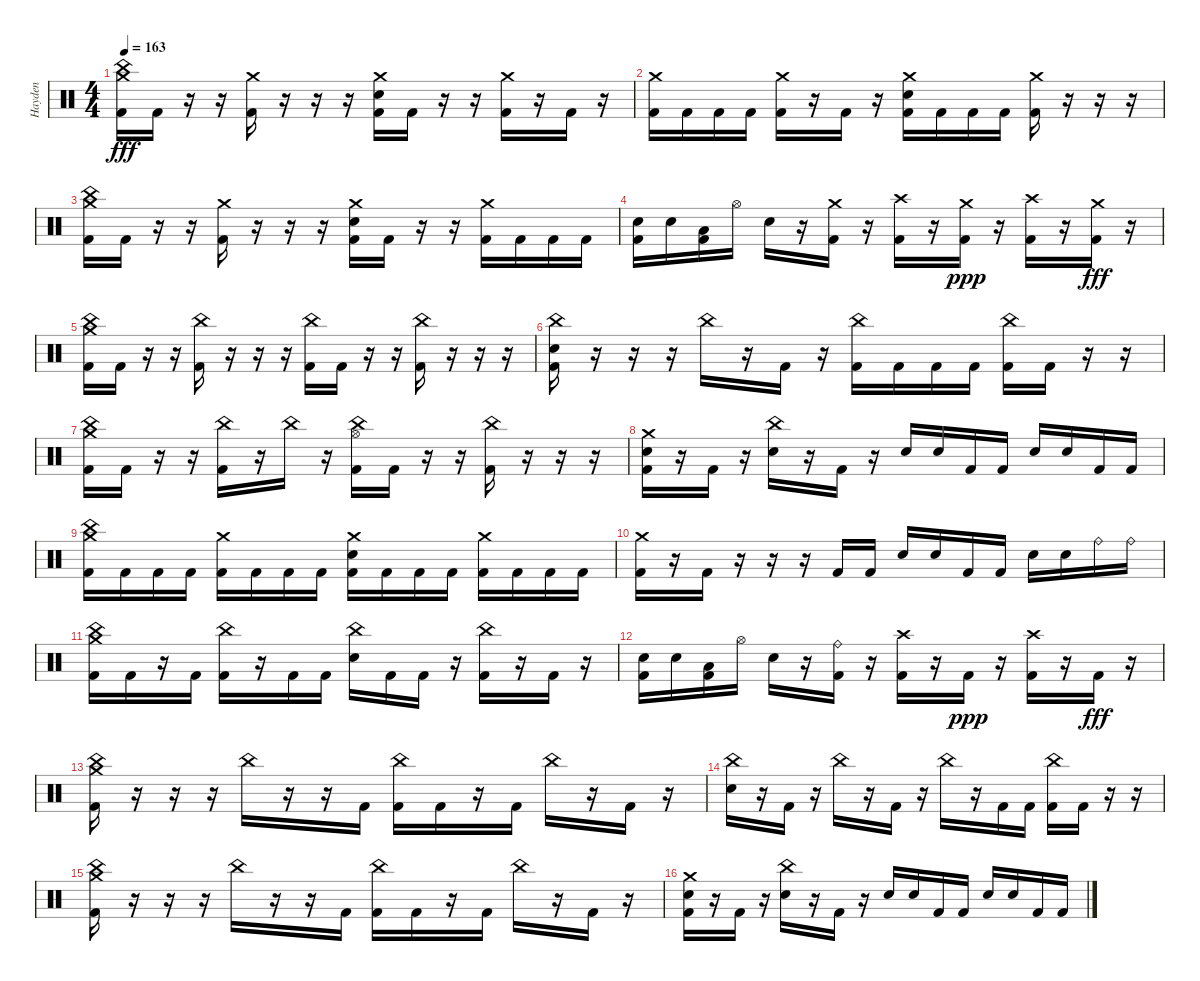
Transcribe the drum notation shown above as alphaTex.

\track ("Hayden" "Hayden") {instrument percussion}
\staff {score}
\articulation defaults
\ts (4 4)
\tempo 163
\clef neutral
\ks c
("Crash medium (hit)" "China (hit)" "Kick (hit) 2").16{dy fff} "Kick (hit) 2".16 r.16 r.16 ("Crash medium (hit)" "Kick (hit) 2").16 r.16 r.16 r.16 ("Crash medium (hit)" "Electric Snare (hit)" "Kick (hit) 2").16 "Kick (hit) 2".16 r.16 r.16 ("Crash medium (hit)" "Kick (hit) 2").16 r.16 "Kick (hit) 2".16 r.16 |
("Crash medium (hit)" "Kick (hit) 2").16 "Kick (hit) 2".16 "Kick (hit) 2".16 "Kick (hit) 2".16 ("Crash medium (hit)" "Kick (hit) 2").16 r.16 "Kick (hit) 2".16 r.16 ("Crash medium (hit)" "Electric Snare (hit)" "Kick (hit) 2").16 "Kick (hit) 2".16 "Kick (hit) 2".16 "Kick (hit) 2".16 ("Crash medium (hit)" "Kick (hit) 2").16 r.16 r.16 r.16 |
("Crash medium (hit)" "China (hit)" "Kick (hit) 2").16 "Kick (hit) 2".16 r.16 r.16 ("Crash medium (hit)" "Kick (hit) 2").16 r.16 r.16 r.16 ("Crash medium (hit)" "Electric Snare (hit)" "Kick (hit) 2").16 "Kick (hit) 2".16 r.16 r.16 ("Crash medium (hit)" "Kick (hit) 2").16 "Kick (hit) 2".16 "Kick (hit) 2".16 "Kick (hit) 2".16 |
("Electric Snare (hit)" "Kick (hit) 2").16 "Electric Snare (hit)".16 ("Low Tom (hit)" "Kick (hit) 2").16 "Hi-Hat (open)".16 "Electric Snare (hit)".16 r.16 ("Crash medium (hit)" "Kick (hit) 2").16 r.16 ("Crash high (hit)" "Kick (hit) 2").16 r.16 ("Crash medium (hit)" "Kick (hit) 2").16{dy ppp} r.16 ("Crash high (hit)" "Kick (hit) 2").16 r.16 ("Crash medium (hit)" "Kick (hit) 2").16{dy fff} r.16 |
("Crash medium (hit)" "China (hit)" "Kick (hit) 2").16 "Kick (hit) 2".16 r.16 r.16 ("China (hit)" "Kick (hit) 2").16 r.16 r.16 r.16 ("China (hit)" "Kick (hit) 2").16 "Kick (hit) 2".16 r.16 r.16 ("China (hit)" "Kick (hit) 2").16 r.16 r.16 r.16 |
("China (hit)" "Electric Snare (hit)" "Kick (hit) 2").16 r.16 r.16 r.16 "China (hit)".16 r.16 "Kick (hit) 2".16 r.16 ("China (hit)" "Kick (hit) 2").16 "Kick (hit) 2".16 "Kick (hit) 2".16 "Kick (hit) 2".16 ("China (hit)" "Kick (hit) 2").16 "Kick (hit) 2".16 r.16 r.16 |
("Crash medium (hit)" "China (hit)" "Kick (hit) 2").16 "Kick (hit) 2".16 r.16 r.16 ("China (hit)" "Kick (hit) 2").16 r.16 "China (hit)".16 r.16 ("China (hit)" "Hi-Hat (open)" "Kick (hit) 2").16 "Kick (hit) 2".16 r.16 r.16 ("China (hit)" "Kick (hit) 2").16 r.16 r.16 r.16 |
("Crash medium (hit)" "Electric Snare (hit)" "Kick (hit) 2").16 r.16 "Kick (hit) 2".16 r.16 ("China (hit)" "Electric Snare (hit)").16 r.16 "Kick (hit) 2".16 r.16 "Electric Snare (hit)".16 "Electric Snare (hit)".16 "Kick (hit) 2".16 "Kick (hit) 2".16 "Electric Snare (hit)".16 "Electric Snare (hit)".16 "Kick (hit) 2".16 "Kick (hit) 2".16 |
("Crash medium (hit)" "China (hit)" "Kick (hit) 2").16 "Kick (hit) 2".16 "Kick (hit) 2".16 "Kick (hit) 2".16 ("Crash medium (hit)" "Kick (hit) 2").16 "Kick (hit) 2".16 "Kick (hit) 2".16 "Kick (hit) 2".16 ("Crash medium (hit)" "Electric Snare (hit)" "Kick (hit) 2").16 "Kick (hit) 2".16 "Kick (hit) 2".16 "Kick (hit) 2".16 ("Crash medium (hit)" "Kick (hit) 2").16 "Kick (hit) 2".16 "Kick (hit) 2".16 "Kick (hit) 2".16 |
("Crash medium (hit)" "Kick (hit) 2").16 r.16 "Kick (hit) 2".16 r.16 r.16 r.16 "Kick (hit) 2".16 "Kick (hit) 2".16 "Electric Snare (hit)".16 "Electric Snare (hit)".16 "Kick (hit) 2".16 "Kick (hit) 2".16 "Electric Snare (hit)".16 "Electric Snare (hit)".16 "Ride (bell)".16 "Ride (bell)".16 |
("Crash medium (hit)" "China (hit)" "Kick (hit) 2").16 "Kick (hit) 2".16 r.16 "Kick (hit) 2".16 ("China (hit)" "Kick (hit) 2").16 r.16 "Kick (hit) 2".16 "Kick (hit) 2".16 ("China (hit)" "Electric Snare (hit)").16 "Kick (hit) 2".16 "Kick (hit) 2".16 r.16 ("China (hit)" "Kick (hit) 2").16 r.16 "Kick (hit) 2".16 r.16 |
("Electric Snare (hit)" "Kick (hit) 2").16 "Electric Snare (hit)".16 ("Low Tom (hit)" "Kick (hit) 2").16 "Hi-Hat (open)".16 "Electric Snare (hit)".16 r.16 ("Ride (bell)" "Kick (hit) 2").16 r.16 ("Crash high (hit)" "Kick (hit) 2").16 r.16 "Kick (hit) 2".16{dy ppp} r.16 ("Crash high (hit)" "Kick (hit) 2").16 r.16 "Kick (hit) 2".16{dy fff} r.16 |
("Crash medium (hit)" "China (hit)" "Kick (hit) 2").16 r.16 r.16 r.16 "China (hit)".16 r.16 r.16 "Kick (hit) 2".16 ("China (hit)" "Kick (hit) 2").16 "Kick (hit) 2".16 r.16 "Kick (hit) 2".16 "China (hit)".16 r.16 "Kick (hit) 2".16 r.16 |
("China (hit)" "Electric Snare (hit)").16 r.16 "Kick (hit) 2".16 r.16 "China (hit)".16 r.16 "Kick (hit) 2".16 r.16 "China (hit)".16 r.16 "Kick (hit) 2".16 "Kick (hit) 2".16 ("China (hit)" "Kick (hit) 2").16 "Kick (hit) 2".16 r.16 r.16 |
("Crash medium (hit)" "China (hit)" "Kick (hit) 2").16 r.16 r.16 r.16 "China (hit)".16 r.16 r.16 "Kick (hit) 2".16 ("China (hit)" "Kick (hit) 2").16 "Kick (hit) 2".16 r.16 "Kick (hit) 2".16 "China (hit)".16 r.16 "Kick (hit) 2".16 r.16 |
("Crash medium (hit)" "Electric Snare (hit)" "Kick (hit) 2").16 r.16 "Kick (hit) 2".16 r.16 ("China (hit)" "Electric Snare (hit)").16 r.16 "Kick (hit) 2".16 r.16 "Electric Snare (hit)".16 "Electric Snare (hit)".16 "Kick (hit) 2".16 "Kick (hit) 2".16 "Electric Snare (hit)".16 "Electric Snare (hit)".16 "Kick (hit) 2".16 "Kick (hit) 2".16
